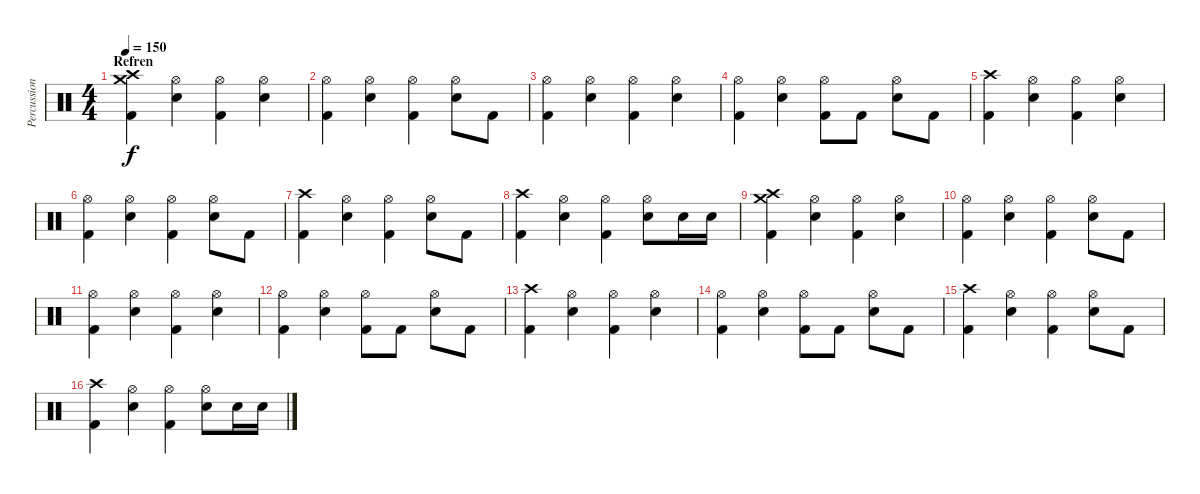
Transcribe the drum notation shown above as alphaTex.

\track ("Percussion" "Percussion") {instrument percussion}
\staff {score}
\articulation defaults
\ts (4 4)
\section ("" "Refren")
\tempo 150
\clef neutral
\ks c
("Crash high (hit)" "Kick (hit) 2" "Crash medium (hit)").4{dy f} ("Hi-Hat (open)" "Electric Snare (hit)").4 ("Hi-Hat (open)" "Kick (hit) 2").4 ("Hi-Hat (open)" "Electric Snare (hit)").4 |
("Hi-Hat (open)" "Kick (hit) 2").4 ("Hi-Hat (open)" "Electric Snare (hit)").4 ("Hi-Hat (open)" "Kick (hit) 2").4 ("Hi-Hat (open)" "Electric Snare (hit)").8 "Kick (hit) 2".8 |
("Hi-Hat (open)" "Kick (hit) 2").4 ("Hi-Hat (open)" "Electric Snare (hit)").4 ("Hi-Hat (open)" "Kick (hit) 2").4 ("Hi-Hat (open)" "Electric Snare (hit)").4 |
("Hi-Hat (open)" "Kick (hit) 2").4 ("Hi-Hat (open)" "Electric Snare (hit)").4 ("Hi-Hat (open)" "Kick (hit) 2").8 "Kick (hit) 2".8 ("Hi-Hat (open)" "Electric Snare (hit)").8 "Kick (hit) 2".8 |
("Crash high (hit)" "Kick (hit) 2").4 ("Hi-Hat (open)" "Electric Snare (hit)").4 ("Hi-Hat (open)" "Kick (hit) 2").4 ("Hi-Hat (open)" "Electric Snare (hit)").4 |
("Hi-Hat (open)" "Kick (hit) 2").4 ("Hi-Hat (open)" "Electric Snare (hit)").4 ("Hi-Hat (open)" "Kick (hit) 2").4 ("Hi-Hat (open)" "Electric Snare (hit)").8 "Kick (hit) 2".8 |
("Crash high (hit)" "Kick (hit) 2").4 ("Hi-Hat (open)" "Electric Snare (hit)").4 ("Hi-Hat (open)" "Kick (hit) 2").4 ("Hi-Hat (open)" "Electric Snare (hit)").8 "Kick (hit) 2".8 |
("Crash high (hit)" "Kick (hit) 2").4 ("Hi-Hat (open)" "Electric Snare (hit)").4 ("Hi-Hat (open)" "Kick (hit) 2").4 ("Electric Snare (hit)" "Hi-Hat (open)").8 "Electric Snare (hit)".16 "Electric Snare (hit)".16 |
("Crash high (hit)" "Kick (hit) 2" "Crash medium (hit)").4 ("Hi-Hat (open)" "Electric Snare (hit)").4 ("Hi-Hat (open)" "Kick (hit) 2").4 ("Hi-Hat (open)" "Electric Snare (hit)").4 |
("Hi-Hat (open)" "Kick (hit) 2").4 ("Hi-Hat (open)" "Electric Snare (hit)").4 ("Hi-Hat (open)" "Kick (hit) 2").4 ("Hi-Hat (open)" "Electric Snare (hit)").8 "Kick (hit) 2".8 |
("Hi-Hat (open)" "Kick (hit) 2").4 ("Hi-Hat (open)" "Electric Snare (hit)").4 ("Hi-Hat (open)" "Kick (hit) 2").4 ("Hi-Hat (open)" "Electric Snare (hit)").4 |
("Hi-Hat (open)" "Kick (hit) 2").4 ("Hi-Hat (open)" "Electric Snare (hit)").4 ("Hi-Hat (open)" "Kick (hit) 2").8 "Kick (hit) 2".8 ("Hi-Hat (open)" "Electric Snare (hit)").8 "Kick (hit) 2".8 |
("Crash high (hit)" "Kick (hit) 2").4 ("Hi-Hat (open)" "Electric Snare (hit)").4 ("Hi-Hat (open)" "Kick (hit) 2").4 ("Hi-Hat (open)" "Electric Snare (hit)").4 |
("Hi-Hat (open)" "Kick (hit) 2").4 ("Hi-Hat (open)" "Electric Snare (hit)").4 ("Hi-Hat (open)" "Kick (hit) 2").8 "Kick (hit) 2".8 ("Hi-Hat (open)" "Electric Snare (hit)").8 "Kick (hit) 2".8 |
("Crash high (hit)" "Kick (hit) 2").4 ("Hi-Hat (open)" "Electric Snare (hit)").4 ("Hi-Hat (open)" "Kick (hit) 2").4 ("Hi-Hat (open)" "Electric Snare (hit)").8 "Kick (hit) 2".8 |
("Crash high (hit)" "Kick (hit) 2").4 ("Hi-Hat (open)" "Electric Snare (hit)").4 ("Hi-Hat (open)" "Kick (hit) 2").4 ("Electric Snare (hit)" "Hi-Hat (open)").8 "Electric Snare (hit)".16 "Electric Snare (hit)".16
